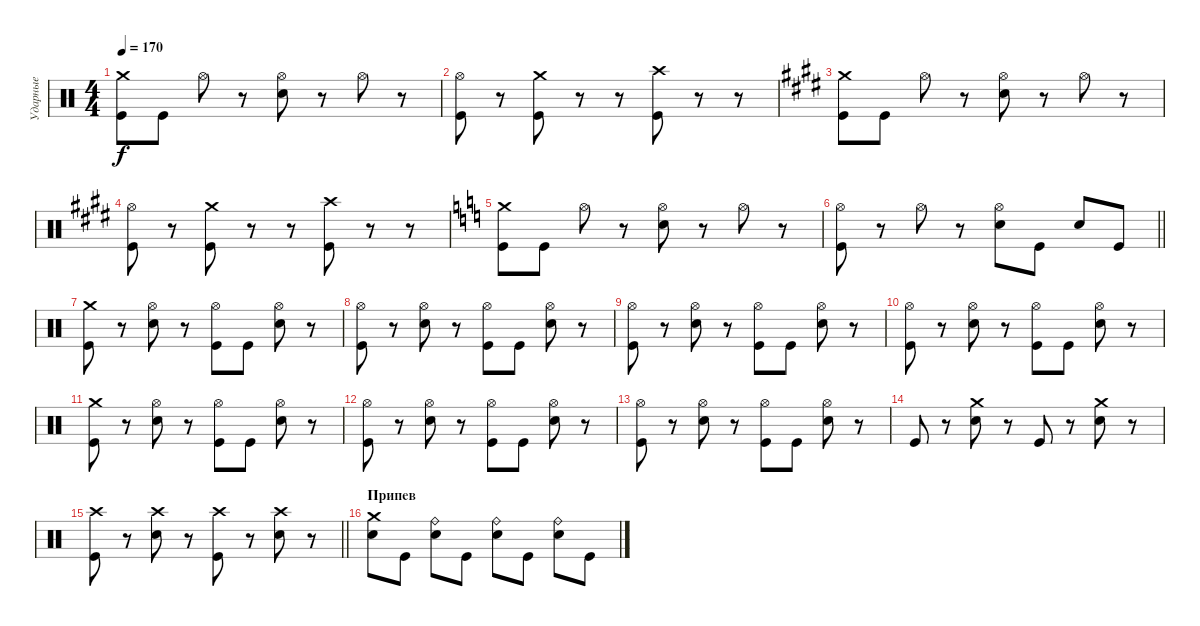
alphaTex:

\track ("Ударные" "Ударные") {instrument percussion}
\staff {score}
\articulation defaults
\ts (4 4)
\tempo 170
\clef neutral
\ks c
("Crash medium (hit)" "Kick (hit)").8{dy f} "Kick (hit)".8 "Hi-Hat (open)".8 r.8 ("Hi-Hat (open)" "Electric Snare (hit)").8 r.8 "Hi-Hat (open)".8 r.8 |
("Hi-Hat (open)" "Kick (hit)").8 r.8 ("Crash medium (hit)" "Kick (hit)").8 r.8 r.8 ("Crash high (hit)" "Kick (hit)").8 r.8 r.8 |
\ks e
("Crash medium (hit)" "Kick (hit)").8 "Kick (hit)".8 "Hi-Hat (open)".8 r.8 ("Hi-Hat (open)" "Electric Snare (hit)").8 r.8 "Hi-Hat (open)".8 r.8 |
("Hi-Hat (open)" "Kick (hit)").8 r.8 ("Crash medium (hit)" "Kick (hit)").8 r.8 r.8 ("Crash high (hit)" "Kick (hit)").8 r.8 r.8 |
\ks c
("Crash medium (hit)" "Kick (hit)").8 "Kick (hit)".8 "Hi-Hat (open)".8 r.8 ("Hi-Hat (open)" "Electric Snare (hit)").8 r.8 "Hi-Hat (open)".8 r.8 |
\barLineRight lightlight
("Hi-Hat (open)" "Kick (hit)").8 r.8 "Hi-Hat (open)".8 r.8 ("Hi-Hat (open)" "Electric Snare (hit)").8 "Kick (hit)".8 "Electric Snare (hit)".8 "Kick (hit)".8 |
\section ("" " ")
("Crash medium (hit)" "Kick (hit)").8 r.8 ("Hi-Hat (open)" "Electric Snare (hit)").8 r.8 ("Hi-Hat (open)" "Kick (hit)").8 "Kick (hit)".8 ("Hi-Hat (open)" "Electric Snare (hit)").8 r.8 |
("Hi-Hat (open)" "Kick (hit)").8 r.8 ("Hi-Hat (open)" "Electric Snare (hit)").8 r.8 ("Hi-Hat (open)" "Kick (hit)").8 "Kick (hit)".8 ("Hi-Hat (open)" "Electric Snare (hit)").8 r.8 |
("Hi-Hat (open)" "Kick (hit)").8 r.8 ("Hi-Hat (open)" "Electric Snare (hit)").8 r.8 ("Hi-Hat (open)" "Kick (hit)").8 "Kick (hit)".8 ("Hi-Hat (open)" "Electric Snare (hit)").8 r.8 |
("Hi-Hat (open)" "Kick (hit)").8 r.8 ("Hi-Hat (open)" "Electric Snare (hit)").8 r.8 ("Hi-Hat (open)" "Kick (hit)").8 "Kick (hit)".8 ("Hi-Hat (open)" "Electric Snare (hit)").8 r.8 |
("Crash medium (hit)" "Kick (hit)").8 r.8 ("Hi-Hat (open)" "Electric Snare (hit)").8 r.8 ("Hi-Hat (open)" "Kick (hit)").8 "Kick (hit)".8 ("Hi-Hat (open)" "Electric Snare (hit)").8 r.8 |
("Hi-Hat (open)" "Kick (hit)").8 r.8 ("Hi-Hat (open)" "Electric Snare (hit)").8 r.8 ("Hi-Hat (open)" "Kick (hit)").8 "Kick (hit)".8 ("Hi-Hat (open)" "Electric Snare (hit)").8 r.8 |
("Hi-Hat (open)" "Kick (hit)").8 r.8 ("Hi-Hat (open)" "Electric Snare (hit)").8 r.8 ("Hi-Hat (open)" "Kick (hit)").8 "Kick (hit)".8 ("Hi-Hat (open)" "Electric Snare (hit)").8 r.8 |
"Kick (hit)".8 r.8 ("Crash medium (hit)" "Electric Snare (hit)").8 r.8 "Kick (hit)".8 r.8 ("Crash medium (hit)" "Electric Snare (hit)").8 r.8 |
\barLineRight lightlight
("Crash high (hit)" "Kick (hit)").8 r.8 ("Crash high (hit)" "Electric Snare (hit)").8 r.8 ("Crash high (hit)" "Kick (hit)").8 r.8 ("Crash high (hit)" "Electric Snare (hit)").8 r.8 |
\section ("" "Припев")
("Crash medium (hit)" "Electric Snare (hit)").8 "Kick (hit)".8 ("Ride (bell)" "Electric Snare (hit)").8 "Kick (hit)".8 ("Ride (bell)" "Electric Snare (hit)").8 "Kick (hit)".8 ("Ride (bell)" "Electric Snare (hit)").8 "Kick (hit)".8
